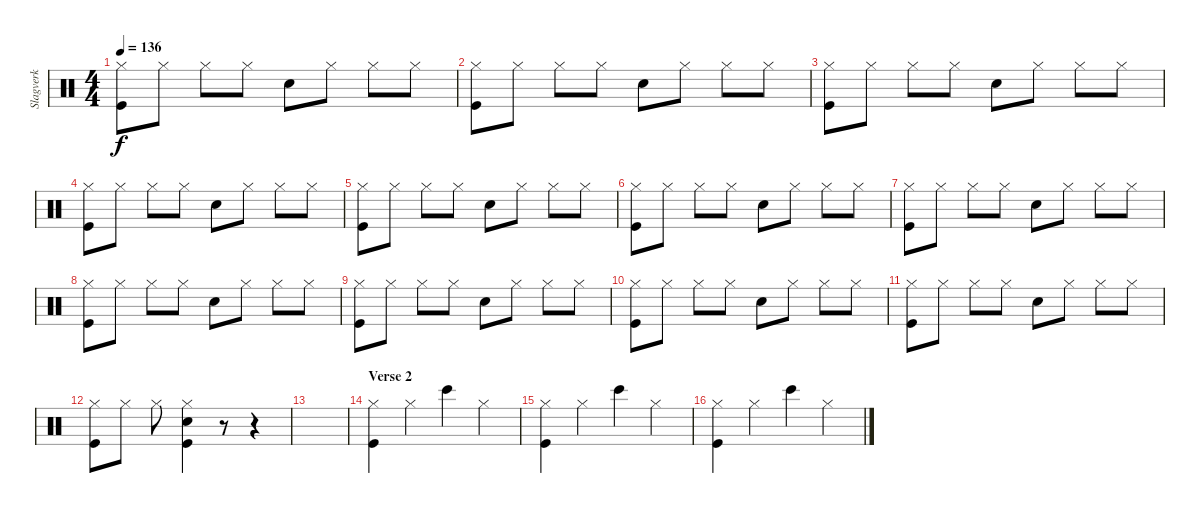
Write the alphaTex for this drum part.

\track ("Slagverk" "Slagverk") {instrument percussion}
\staff {score}
\articulation defaults
\ts (4 4)
\tempo 136
\clef neutral
\ks c
("Hi-Hat (closed)" "Kick (hit)").8{dy f} "Hi-Hat (closed)".8 "Hi-Hat (closed)".8 "Hi-Hat (closed)".8 "Snare (hit) 2".8 "Hi-Hat (closed)".8 "Hi-Hat (closed)".8 "Hi-Hat (closed)".8 |
("Hi-Hat (closed)" "Kick (hit)").8 "Hi-Hat (closed)".8 "Hi-Hat (closed)".8 "Hi-Hat (closed)".8 "Snare (hit) 2".8 "Hi-Hat (closed)".8 "Hi-Hat (closed)".8 "Hi-Hat (closed)".8 |
("Hi-Hat (closed)" "Kick (hit)").8 "Hi-Hat (closed)".8 "Hi-Hat (closed)".8 "Hi-Hat (closed)".8 "Snare (hit) 2".8 "Hi-Hat (closed)".8 "Hi-Hat (closed)".8 "Hi-Hat (closed)".8 |
("Hi-Hat (closed)" "Kick (hit)").8 "Hi-Hat (closed)".8 "Hi-Hat (closed)".8 "Hi-Hat (closed)".8 "Snare (hit) 2".8 "Hi-Hat (closed)".8 "Hi-Hat (closed)".8 "Hi-Hat (closed)".8 |
("Hi-Hat (closed)" "Kick (hit)").8 "Hi-Hat (closed)".8 "Hi-Hat (closed)".8 "Hi-Hat (closed)".8 "Snare (hit) 2".8 "Hi-Hat (closed)".8 "Hi-Hat (closed)".8 "Hi-Hat (closed)".8 |
("Hi-Hat (closed)" "Kick (hit)").8 "Hi-Hat (closed)".8 "Hi-Hat (closed)".8 "Hi-Hat (closed)".8 "Snare (hit) 2".8 "Hi-Hat (closed)".8 "Hi-Hat (closed)".8 "Hi-Hat (closed)".8 |
("Hi-Hat (closed)" "Kick (hit)").8 "Hi-Hat (closed)".8 "Hi-Hat (closed)".8 "Hi-Hat (closed)".8 "Snare (hit) 2".8 "Hi-Hat (closed)".8 "Hi-Hat (closed)".8 "Hi-Hat (closed)".8 |
("Hi-Hat (closed)" "Kick (hit)").8 "Hi-Hat (closed)".8 "Hi-Hat (closed)".8 "Hi-Hat (closed)".8 "Snare (hit) 2".8 "Hi-Hat (closed)".8 "Hi-Hat (closed)".8 "Hi-Hat (closed)".8 |
("Hi-Hat (closed)" "Kick (hit)").8 "Hi-Hat (closed)".8 "Hi-Hat (closed)".8 "Hi-Hat (closed)".8 "Snare (hit) 2".8 "Hi-Hat (closed)".8 "Hi-Hat (closed)".8 "Hi-Hat (closed)".8 |
("Hi-Hat (closed)" "Kick (hit)").8 "Hi-Hat (closed)".8 "Hi-Hat (closed)".8 "Hi-Hat (closed)".8 "Snare (hit) 2".8 "Hi-Hat (closed)".8 "Hi-Hat (closed)".8 "Hi-Hat (closed)".8 |
("Hi-Hat (closed)" "Kick (hit)").8 "Hi-Hat (closed)".8 "Hi-Hat (closed)".8 "Hi-Hat (closed)".8 "Snare (hit) 2".8 "Hi-Hat (closed)".8 "Hi-Hat (closed)".8 "Hi-Hat (closed)".8 |
("Hi-Hat (closed)" "Kick (hit)").8 "Hi-Hat (closed)".8 "Hi-Hat (closed)".8 ("Hi-Hat (closed)" "Kick (hit)" "Electric Snare (hit)").4 r.8 r.4 |
|
\section ("" "Verse 2")
("Hi-Hat (closed)" "Kick (hit)").4 "Hi-Hat (closed)".4 "Bongo High (hit)".4 "Hi-Hat (closed)".4 |
("Hi-Hat (closed)" "Kick (hit)").4 "Hi-Hat (closed)".4 "Bongo High (hit)".4 "Hi-Hat (closed)".4 |
("Hi-Hat (closed)" "Kick (hit)").4 "Hi-Hat (closed)".4 "Bongo High (hit)".4 "Hi-Hat (closed)".4
